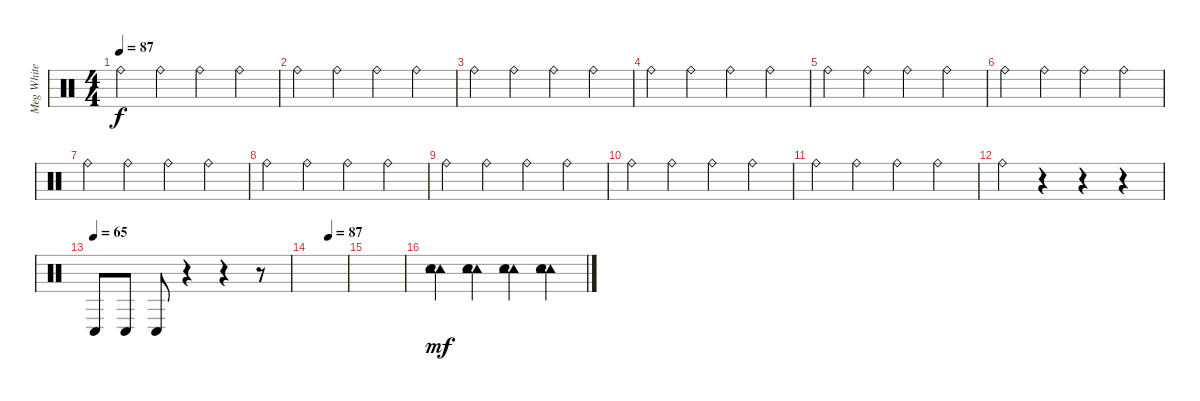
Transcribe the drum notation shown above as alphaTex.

\track ("Meg White - Drums" "Meg White ") {instrument percussion}
\staff {score}
\articulation defaults
\ts (4 4)
\tempo 87
\clef neutral
\ks c "Ride (bell)".4{dy f} "Ride (bell)".4 "Ride (bell)".4 "Ride (bell)".4
|
"Ride (bell)".4 "Ride (bell)".4 "Ride (bell)".4 "Ride (bell)".4 |
"Ride (bell)".4 "Ride (bell)".4 "Ride (bell)".4 "Ride (bell)".4 |
"Ride (bell)".4 "Ride (bell)".4 "Ride (bell)".4 "Ride (bell)".4 |
"Ride (bell)".4 "Ride (bell)".4 "Ride (bell)".4 "Ride (bell)".4 |
"Ride (bell)".4 "Ride (bell)".4 "Ride (bell)".4 "Ride (bell)".4 |
"Ride (bell)".4 "Ride (bell)".4 "Ride (bell)".4 "Ride (bell)".4 |
"Ride (bell)".4 "Ride (bell)".4 "Ride (bell)".4 "Ride (bell)".4 |
"Ride (bell)".4 "Ride (bell)".4 "Ride (bell)".4 "Ride (bell)".4 |
"Ride (bell)".4 "Ride (bell)".4 "Ride (bell)".4 "Ride (bell)".4 |
"Ride (bell)".4 "Ride (bell)".4 "Ride (bell)".4 "Ride (bell)".4 |
"Ride (bell)".4 r.4 r.4 r.4 |
\tempo (65)
"Conga low (hit)".8 "Conga low (hit)".8 "Conga low (hit)".8 r.4 r.4 r.8 |
\tempo (87 0.5)
|
|
("Tambourine (hit)" "Tambourine (hit)" "Snare (hit) 2").4{dy mf} ("Tambourine (hit)" "Tambourine (hit)" "Snare (hit) 2").4 ("Tambourine (hit)" "Tambourine (hit)" "Snare (hit) 2").4 ("Tambourine (hit)" "Tambourine (hit)" "Snare (hit) 2").4
